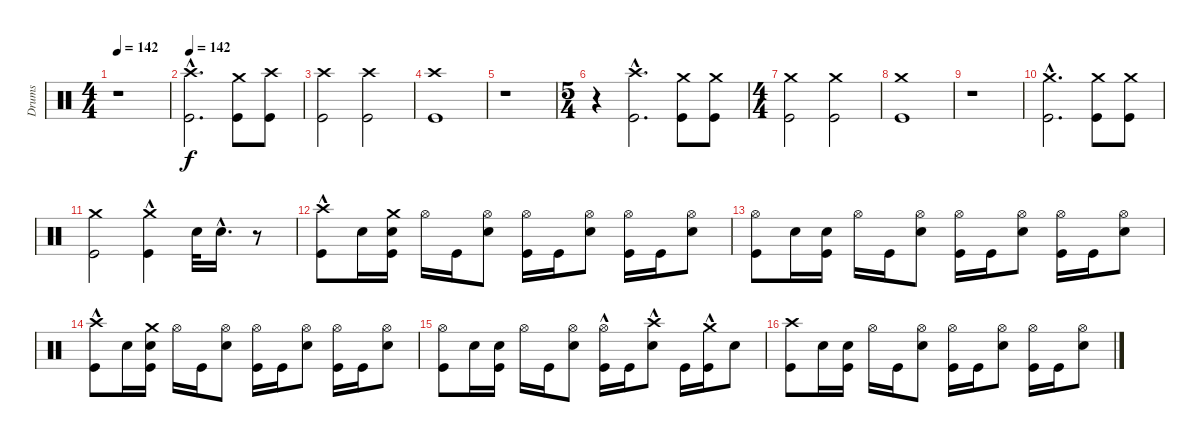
\track ("Drums" "Drums") {instrument percussion}
\staff {score}
\articulation defaults
\ts (4 4)
\tempo 142
\clef neutral
\ks c
r.1{dy f} |
\tempo 142
("Crash high (hit)"{hac} "Kick (hit)"{hac}).2{d} ("Crash medium (hit)" "Kick (hit)").8 ("Crash high (hit)" "Kick (hit)").8 |
("Crash high (hit)" "Kick (hit)").2 ("Crash high (hit)" "Kick (hit)").2 |
("Crash high (hit)" "Kick (hit)").1 |
r.1 |
\ts (5 4)
r.4 ("Crash high (hit)"{hac} "Kick (hit)"{hac}).2{d} ("Crash medium (hit)" "Kick (hit)").8 ("Crash medium (hit)" "Kick (hit)").8 |
\ts (4 4)
("Crash medium (hit)" "Kick (hit)").2 ("Crash medium (hit)" "Kick (hit)").2 |
("Crash medium (hit)" "Kick (hit)").1 |
r.1 |
("Crash medium (hit)"{hac} "Kick (hit)"{hac}).2{d} ("Crash medium (hit)" "Kick (hit)").8 ("Crash medium (hit)" "Kick (hit)").8 |
("Crash medium (hit)" "Kick (hit)").2 ("Crash medium (hit)"{hac} "Kick (hit)").4 "Snare (hit) 2".32 "Snare (hit) 2"{hac}.16{d} r.8 |
("Crash high (hit)"{hac} "Kick (hit)").8 "Snare (hit) 2".16 ("Crash medium (hit)" "Snare (hit) 2" "Kick (hit)").16 "Hi-Hat (open)".16 "Kick (hit)".16 ("Hi-Hat (open)" "Snare (hit) 2").8 ("Hi-Hat (open)" "Kick (hit)").16 "Kick (hit)".16 ("Hi-Hat (open)" "Snare (hit) 2").8 ("Hi-Hat (open)" "Kick (hit)").16 "Kick (hit)".16 ("Hi-Hat (open)" "Snare (hit) 2").8 |
("Hi-Hat (open)" "Kick (hit)").8 "Snare (hit) 2".16 ("Snare (hit) 2" "Kick (hit)").16 "Hi-Hat (open)".16 "Kick (hit)".16 ("Hi-Hat (open)" "Snare (hit) 2").8 ("Hi-Hat (open)" "Kick (hit)").16 "Kick (hit)".16 ("Hi-Hat (open)" "Snare (hit) 2").8 ("Hi-Hat (open)" "Kick (hit)").16 "Kick (hit)".16 ("Hi-Hat (open)" "Snare (hit) 2").8 |
("Crash high (hit)"{hac} "Kick (hit)").8 "Snare (hit) 2".16 ("Crash medium (hit)" "Snare (hit) 2" "Kick (hit)").16 "Hi-Hat (open)".16 "Kick (hit)".16 ("Hi-Hat (open)" "Snare (hit) 2").8 ("Hi-Hat (open)" "Kick (hit)").16 "Kick (hit)".16 ("Hi-Hat (open)" "Snare (hit) 2").8 ("Hi-Hat (open)" "Kick (hit)").16 "Kick (hit)".16 ("Hi-Hat (open)" "Snare (hit) 2").8 |
("Hi-Hat (open)" "Kick (hit)").8 "Snare (hit) 2".16 ("Snare (hit) 2" "Kick (hit)").16 "Hi-Hat (open)".16 "Kick (hit)".16 ("Hi-Hat (open)" "Snare (hit) 2").8 ("Hi-Hat (open)"{hac} "Kick (hit)").16 "Kick (hit)".16 ("Crash high (hit)"{hac} "Snare (hit) 2").8 "Kick (hit)".16 ("Crash medium (hit)"{hac} "Kick (hit)").16 "Snare (hit) 2".8 |
("Crash high (hit)" "Kick (hit)").8 "Snare (hit) 2".16 ("Snare (hit) 2" "Kick (hit)").16 "Hi-Hat (open)".16 "Kick (hit)".16 ("Hi-Hat (open)" "Snare (hit) 2").8 ("Hi-Hat (open)" "Kick (hit)").16 "Kick (hit)".16 ("Hi-Hat (open)" "Snare (hit) 2").8 ("Hi-Hat (open)" "Kick (hit)").16 "Kick (hit)".16 ("Hi-Hat (open)" "Snare (hit) 2").8
